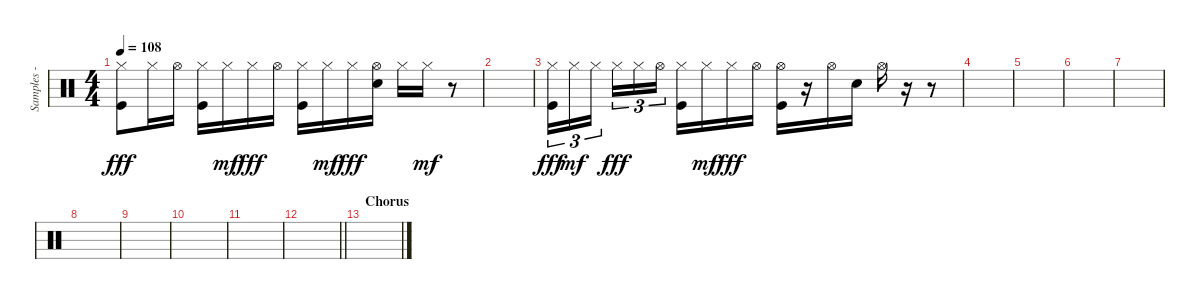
\track ("Samples - Joe Hahn" "Samples - ") {instrument percussion}
\staff {score}
\articulation defaults
\ts (4 4)
\tempo 108
\clef neutral
\ks c
("Hi-Hat (closed)" "Kick (hit)").8{dy fff} "Hi-Hat (closed)".16 "Hi-Hat (open)".16 ("Hi-Hat (closed)" "Kick (hit)").16 "Hi-Hat (closed)".16{dy mf} "Hi-Hat (closed)".16{dy fff} "Hi-Hat (open)".16 ("Hi-Hat (closed)" "Kick (hit)").16 "Hi-Hat (closed)".16{dy mf} "Hi-Hat (closed)".16{dy fff} ("Hi-Hat (open)" "Electric Snare (hit)").16 "Hi-Hat (closed)".16 "Hi-Hat (closed)".16{dy mf} r.8 |
|
("Hi-Hat (closed)" "Kick (hit)").16{tu (3 2) dy fff} "Hi-Hat (closed)".16{tu (3 2) dy mf} "Hi-Hat (closed)".16{tu (3 2) beam splitsecondary} "Hi-Hat (closed)".16{tu (3 2) dy fff} "Hi-Hat (closed)".16{tu (3 2)} "Hi-Hat (open)".16{tu (3 2)} ("Hi-Hat (closed)" "Kick (hit)").16 "Hi-Hat (closed)".16{dy mf} "Hi-Hat (closed)".16{dy fff} "Hi-Hat (open)".16 ("Hi-Hat (open)" "Kick (hit)").16 r.16 "Hi-Hat (open)".16 "Electric Snare (hit)".16 "Hi-Hat (open)".16 r.16 r.8 |
|
|
|
|
|
|
|
|
\barLineRight lightlight
|
\section ("" "Chorus")
